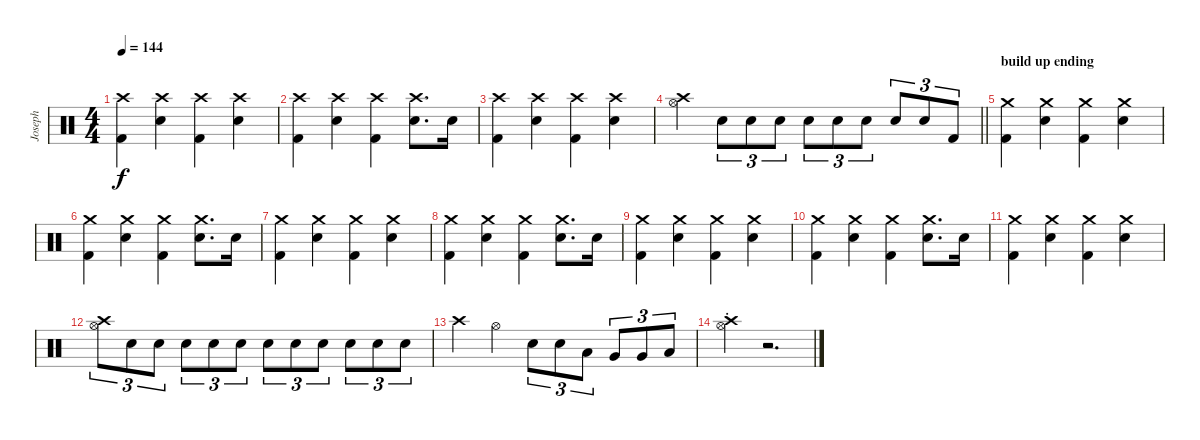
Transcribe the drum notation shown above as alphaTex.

\track ("Joseph" "Joseph") {instrument percussion}
\staff {score}
\articulation defaults
\ts (4 4)
\tempo 144
\clef neutral
\ks c
("Crash high (hit)" "Kick (hit) 2").4{dy f} ("Crash high (hit)" "Electric Snare (hit)").4 ("Crash high (hit)" "Kick (hit) 2").4 ("Crash high (hit)" "Electric Snare (hit)").4 |
("Crash high (hit)" "Kick (hit) 2").4 ("Crash high (hit)" "Electric Snare (hit)").4 ("Crash high (hit)" "Kick (hit) 2").4 ("Crash high (hit)" "Electric Snare (hit)").8{d} "Electric Snare (hit)".16 |
("Crash high (hit)" "Kick (hit) 2").4 ("Crash high (hit)" "Electric Snare (hit)").4 ("Crash high (hit)" "Kick (hit) 2").4 ("Crash high (hit)" "Electric Snare (hit)").4 |
\barLineRight lightlight
("Crash high (hit)" "Hi-Hat (open)").4 "Electric Snare (hit)".8{tu (3 2)} "Electric Snare (hit)".8{tu (3 2)} "Electric Snare (hit)".8{tu (3 2)} "Electric Snare (hit)".8{tu (3 2)} "Electric Snare (hit)".8{tu (3 2)} "Electric Snare (hit)".8{tu (3 2)} "Electric Snare (hit)".8{tu (3 2)} "Electric Snare (hit)".8{tu (3 2)} "Kick (hit) 2".8{tu (3 2)} |
\section ("" "build up ending")
("Crash medium (hit)" "Kick (hit) 2").4 ("Crash medium (hit)" "Electric Snare (hit)").4 ("Crash medium (hit)" "Kick (hit) 2").4 ("Crash medium (hit)" "Electric Snare (hit)").4 |
("Crash medium (hit)" "Kick (hit) 2").4 ("Crash medium (hit)" "Electric Snare (hit)").4 ("Crash medium (hit)" "Kick (hit) 2").4 ("Crash medium (hit)" "Electric Snare (hit)").8{d} "Electric Snare (hit)".16 |
("Crash medium (hit)" "Kick (hit) 2").4 ("Crash medium (hit)" "Electric Snare (hit)").4 ("Crash medium (hit)" "Kick (hit) 2").4 ("Crash medium (hit)" "Electric Snare (hit)").4 |
("Crash medium (hit)" "Kick (hit) 2").4 ("Crash medium (hit)" "Electric Snare (hit)").4 ("Crash medium (hit)" "Kick (hit) 2").4 ("Crash medium (hit)" "Electric Snare (hit)").8{d} "Electric Snare (hit)".16 |
("Crash medium (hit)" "Kick (hit) 2").4 ("Crash medium (hit)" "Electric Snare (hit)").4 ("Crash medium (hit)" "Kick (hit) 2").4 ("Crash medium (hit)" "Electric Snare (hit)").4 |
("Crash medium (hit)" "Kick (hit) 2").4 ("Crash medium (hit)" "Electric Snare (hit)").4 ("Crash medium (hit)" "Kick (hit) 2").4 ("Crash medium (hit)" "Electric Snare (hit)").8{d} "Electric Snare (hit)".16 |
("Crash medium (hit)" "Kick (hit) 2").4 ("Crash medium (hit)" "Electric Snare (hit)").4 ("Crash medium (hit)" "Kick (hit) 2").4 ("Crash medium (hit)" "Electric Snare (hit)").4 |
("Crash high (hit)" "Hi-Hat (open)").8{tu (3 2)} "Electric Snare (hit)".8{tu (3 2)} "Electric Snare (hit)".8{tu (3 2)} "Electric Snare (hit)".8{tu (3 2)} "Electric Snare (hit)".8{tu (3 2)} "Electric Snare (hit)".8{tu (3 2)} "Electric Snare (hit)".8{tu (3 2)} "Electric Snare (hit)".8{tu (3 2)} "Electric Snare (hit)".8{tu (3 2)} "Electric Snare (hit)".8{tu (3 2)} "Electric Snare (hit)".8{tu (3 2)} "Electric Snare (hit)".8{tu (3 2)} |
"Crash high (hit)".4 "Hi-Hat (open)".4 "Electric Snare (hit)".8{tu (3 2)} "Electric Snare (hit)".8{tu (3 2)} "Low Tom (hit)".8{tu (3 2)} "Very Low Tom (hit)".8{tu (3 2)} "Very Low Tom (hit)".8{tu (3 2)} "Low Floor Tom (hit)".8{tu (3 2)} |
("Crash high (hit)"{st} "Hi-Hat (open)"{st}).4{volume 0} r.2{d}
